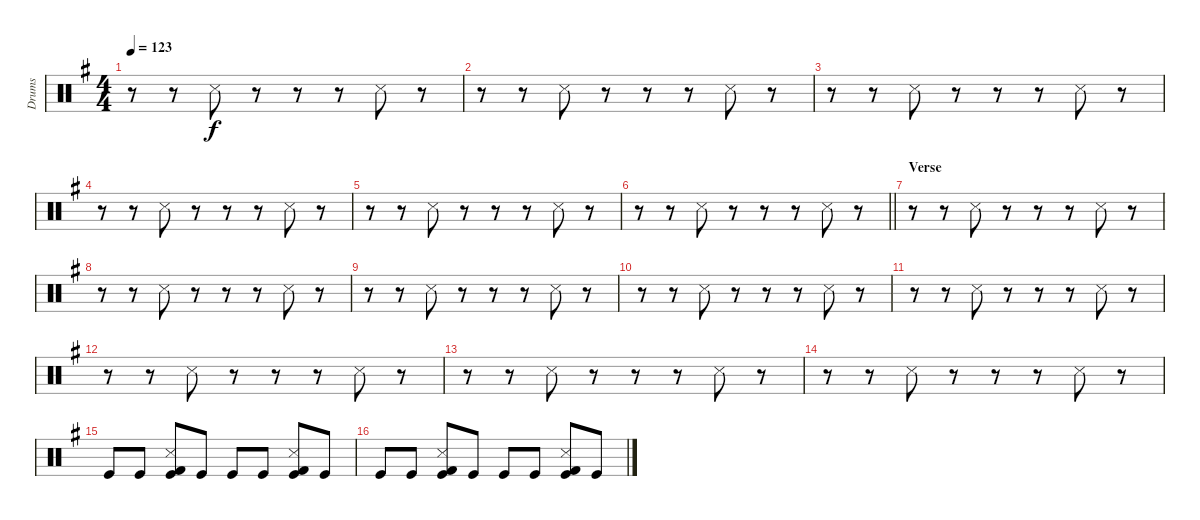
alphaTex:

\track ("Drums" "Drums") {instrument percussion}
\staff {score}
\articulation defaults
\ts (4 4)
\tempo 123
\clef neutral
\ks g
r.8{dy f} r.8 "Snare (side stick) 3".8 r.8 r.8 r.8 "Snare (side stick) 3".8 r.8 |
r.8 r.8 "Snare (side stick) 3".8 r.8 r.8 r.8 "Snare (side stick) 3".8 r.8 |
r.8 r.8 "Snare (side stick) 3".8 r.8 r.8 r.8 "Snare (side stick) 3".8 r.8 |
r.8 r.8 "Snare (side stick) 3".8 r.8 r.8 r.8 "Snare (side stick) 3".8 r.8 |
r.8 r.8 "Snare (side stick) 3".8 r.8 r.8 r.8 "Snare (side stick) 3".8 r.8 |
\barLineRight lightlight
r.8 r.8 "Snare (side stick) 3".8 r.8 r.8 r.8 "Snare (side stick) 3".8 r.8 |
\section ("" "Verse")
r.8 r.8 "Snare (side stick) 3".8 r.8 r.8 r.8 "Snare (side stick) 3".8 r.8 |
r.8 r.8 "Snare (side stick) 3".8 r.8 r.8 r.8 "Snare (side stick) 3".8 r.8 |
r.8 r.8 "Snare (side stick) 3".8 r.8 r.8 r.8 "Snare (side stick) 3".8 r.8 |
r.8 r.8 "Snare (side stick) 3".8 r.8 r.8 r.8 "Snare (side stick) 3".8 r.8 |
r.8 r.8 "Snare (side stick) 3".8 r.8 r.8 r.8 "Snare (side stick) 3".8 r.8 |
r.8 r.8 "Snare (side stick) 3".8 r.8 r.8 r.8 "Snare (side stick) 3".8 r.8 |
r.8 r.8 "Snare (side stick) 3".8 r.8 r.8 r.8 "Snare (side stick) 3".8 r.8 |
r.8 r.8 "Snare (side stick) 3".8 r.8 r.8 r.8 "Snare (side stick) 3".8 r.8 |
"Kick (hit)".8 "Kick (hit)".8 ("Snare (side stick) 3" "Kick (hit) 2" "Kick (hit)").8 "Kick (hit)".8 "Kick (hit)".8 "Kick (hit)".8 ("Snare (side stick) 3" "Kick (hit) 2" "Kick (hit)").8 "Kick (hit)".8 |
"Kick (hit)".8 "Kick (hit)".8 ("Snare (side stick) 3" "Kick (hit) 2" "Kick (hit)").8 "Kick (hit)".8 "Kick (hit)".8 "Kick (hit)".8 ("Snare (side stick) 3" "Kick (hit) 2" "Kick (hit)").8 "Kick (hit)".8
